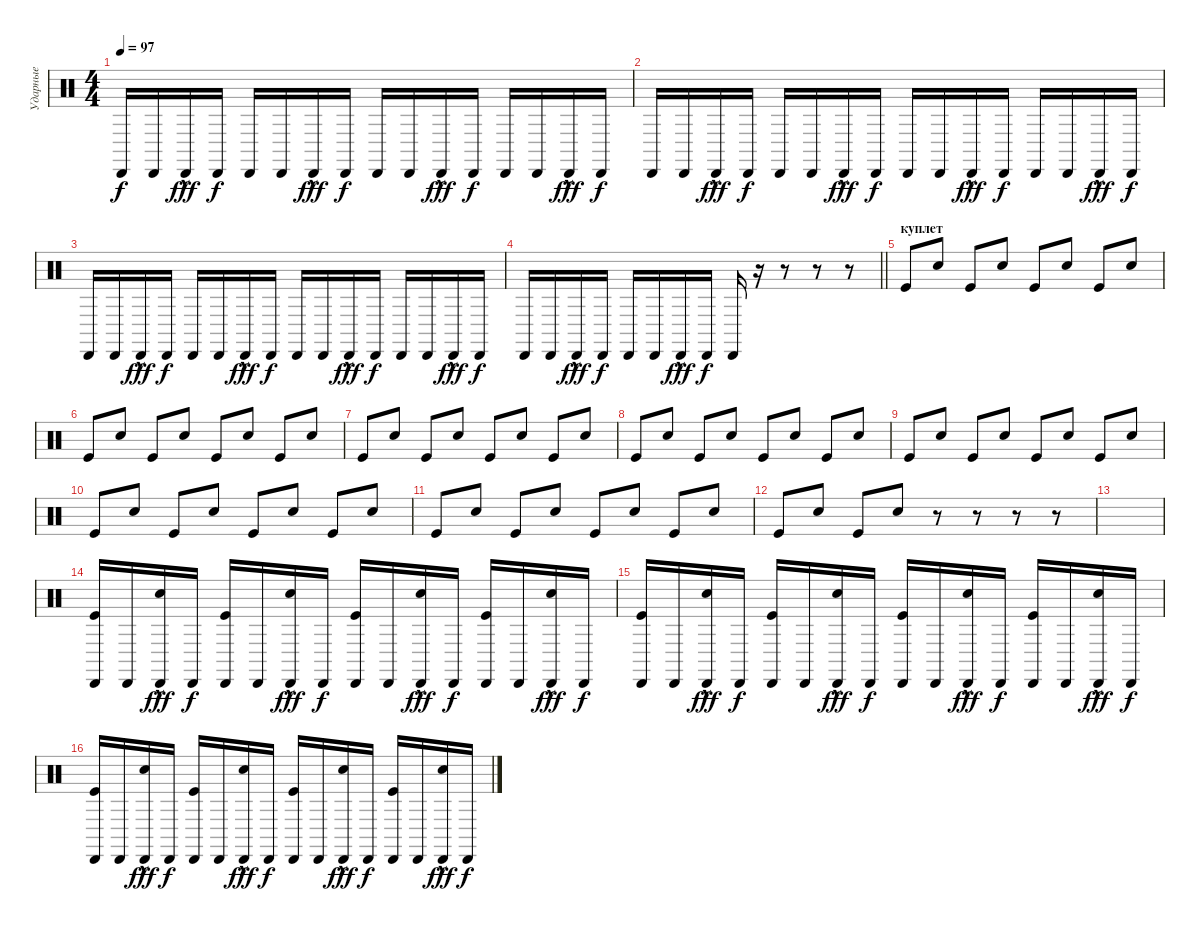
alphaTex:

\track ("Ударные" "Ударные") {instrument percussion}
\staff {score}
\articulation defaults
\ts (4 4)
\tempo 97
\clef neutral
\ks c "Cabasa (hit)".16{dy f} "Cabasa (hit)".16 "Cabasa (hit)"{hac}.16{dy fff} "Cabasa (hit)".16{dy f} "Cabasa (hit)".16 "Cabasa (hit)".16 "Cabasa (hit)"{hac}.16{dy fff} "Cabasa (hit)".16{dy f} "Cabasa (hit)".16 "Cabasa (hit)".16 "Cabasa (hit)"{hac}.16{dy fff} "Cabasa (hit)".16{dy f} "Cabasa (hit)".16 "Cabasa (hit)".16 "Cabasa (hit)"{hac}.16{dy fff} "Cabasa (hit)".16{dy f}
|
"Cabasa (hit)".16 "Cabasa (hit)".16 "Cabasa (hit)"{hac}.16{dy fff} "Cabasa (hit)".16{dy f} "Cabasa (hit)".16 "Cabasa (hit)".16 "Cabasa (hit)"{hac}.16{dy fff} "Cabasa (hit)".16{dy f} "Cabasa (hit)".16 "Cabasa (hit)".16 "Cabasa (hit)"{hac}.16{dy fff} "Cabasa (hit)".16{dy f} "Cabasa (hit)".16 "Cabasa (hit)".16 "Cabasa (hit)"{hac}.16{dy fff} "Cabasa (hit)".16{dy f} |
"Cabasa (hit)".16 "Cabasa (hit)".16 "Cabasa (hit)"{hac}.16{dy fff} "Cabasa (hit)".16{dy f} "Cabasa (hit)".16 "Cabasa (hit)".16 "Cabasa (hit)"{hac}.16{dy fff} "Cabasa (hit)".16{dy f} "Cabasa (hit)".16 "Cabasa (hit)".16 "Cabasa (hit)"{hac}.16{dy fff} "Cabasa (hit)".16{dy f} "Cabasa (hit)".16 "Cabasa (hit)".16 "Cabasa (hit)"{hac}.16{dy fff} "Cabasa (hit)".16{dy f} |
\barLineRight lightlight "Cabasa (hit)".16 "Cabasa (hit)".16 "Cabasa (hit)"{hac}.16{dy fff} "Cabasa (hit)".16{dy f} "Cabasa (hit)".16 "Cabasa (hit)".16 "Cabasa (hit)"{hac}.16{dy fff} "Cabasa (hit)".16{dy f} "Cabasa (hit)".16
r.16 r.8 r.8 r.8 |
\section ("" "куплет")
"Kick (hit)".8 "Hand Clap (hit)".8 "Kick (hit)".8 "Hand Clap (hit)".8 "Kick (hit)".8 "Hand Clap (hit)".8 "Kick (hit)".8 "Hand Clap (hit)".8 |
"Kick (hit)".8 "Hand Clap (hit)".8 "Kick (hit)".8 "Hand Clap (hit)".8 "Kick (hit)".8 "Hand Clap (hit)".8 "Kick (hit)".8 "Hand Clap (hit)".8 |
"Kick (hit)".8 "Hand Clap (hit)".8 "Kick (hit)".8 "Hand Clap (hit)".8 "Kick (hit)".8 "Hand Clap (hit)".8 "Kick (hit)".8 "Hand Clap (hit)".8 |
"Kick (hit)".8 "Hand Clap (hit)".8 "Kick (hit)".8 "Hand Clap (hit)".8 "Kick (hit)".8 "Hand Clap (hit)".8 "Kick (hit)".8 "Hand Clap (hit)".8 |
"Kick (hit)".8 "Hand Clap (hit)".8 "Kick (hit)".8 "Hand Clap (hit)".8 "Kick (hit)".8 "Hand Clap (hit)".8 "Kick (hit)".8 "Hand Clap (hit)".8 |
"Kick (hit)".8 "Hand Clap (hit)".8 "Kick (hit)".8 "Hand Clap (hit)".8 "Kick (hit)".8 "Hand Clap (hit)".8 "Kick (hit)".8 "Hand Clap (hit)".8 |
"Kick (hit)".8 "Hand Clap (hit)".8 "Kick (hit)".8 "Hand Clap (hit)".8 "Kick (hit)".8 "Hand Clap (hit)".8 "Kick (hit)".8 "Hand Clap (hit)".8 |
"Kick (hit)".8 "Hand Clap (hit)".8 "Kick (hit)".8 "Hand Clap (hit)".8 r.8 r.8 r.8 r.8 |
|
("Cabasa (hit)" "Kick (hit)").16 "Cabasa (hit)".16 ("Cabasa (hit)"{hac} "Hand Clap (hit)").16{dy fff} "Cabasa (hit)".16{dy f} ("Cabasa (hit)" "Kick (hit)").16 "Cabasa (hit)".16 ("Cabasa (hit)"{hac} "Hand Clap (hit)").16{dy fff} "Cabasa (hit)".16{dy f} ("Cabasa (hit)" "Kick (hit)").16 "Cabasa (hit)".16 ("Cabasa (hit)"{hac} "Hand Clap (hit)").16{dy fff} "Cabasa (hit)".16{dy f} ("Cabasa (hit)" "Kick (hit)").16 "Cabasa (hit)".16 ("Cabasa (hit)"{hac} "Hand Clap (hit)").16{dy fff} "Cabasa (hit)".16{dy f} |
("Cabasa (hit)" "Kick (hit)").16 "Cabasa (hit)".16 ("Cabasa (hit)"{hac} "Hand Clap (hit)").16{dy fff} "Cabasa (hit)".16{dy f} ("Cabasa (hit)" "Kick (hit)").16 "Cabasa (hit)".16 ("Cabasa (hit)"{hac} "Hand Clap (hit)").16{dy fff} "Cabasa (hit)".16{dy f} ("Cabasa (hit)" "Kick (hit)").16 "Cabasa (hit)".16 ("Cabasa (hit)"{hac} "Hand Clap (hit)").16{dy fff} "Cabasa (hit)".16{dy f} ("Cabasa (hit)" "Kick (hit)").16 "Cabasa (hit)".16 ("Cabasa (hit)"{hac} "Hand Clap (hit)").16{dy fff} "Cabasa (hit)".16{dy f} |
("Cabasa (hit)" "Kick (hit)").16 "Cabasa (hit)".16 ("Cabasa (hit)"{hac} "Hand Clap (hit)").16{dy fff} "Cabasa (hit)".16{dy f} ("Cabasa (hit)" "Kick (hit)").16 "Cabasa (hit)".16 ("Cabasa (hit)"{hac} "Hand Clap (hit)").16{dy fff} "Cabasa (hit)".16{dy f} ("Cabasa (hit)" "Kick (hit)").16 "Cabasa (hit)".16 ("Cabasa (hit)"{hac} "Hand Clap (hit)").16{dy fff} "Cabasa (hit)".16{dy f} ("Cabasa (hit)" "Kick (hit)").16 "Cabasa (hit)".16 ("Cabasa (hit)"{hac} "Hand Clap (hit)").16{dy fff} "Cabasa (hit)".16{dy f}
